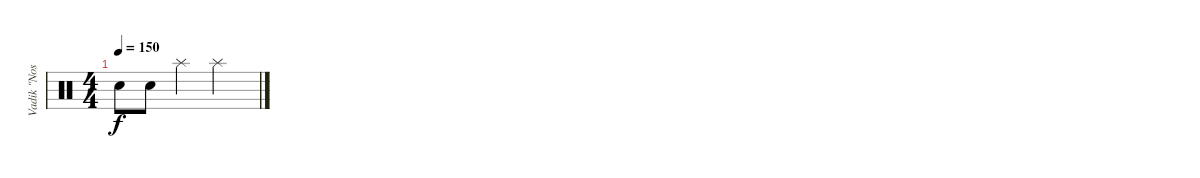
\track ("Vadik \"Nos\"" "Vadik \"Nos") {instrument percussion}
\staff {score}
\articulation defaults
\ts (4 4)
\tempo 150
\clef neutral
\ks c "Electric Snare (hit)".8{dy f} "Electric Snare (hit)".8 "Splash (hit)".4 "Splash (hit)".2
